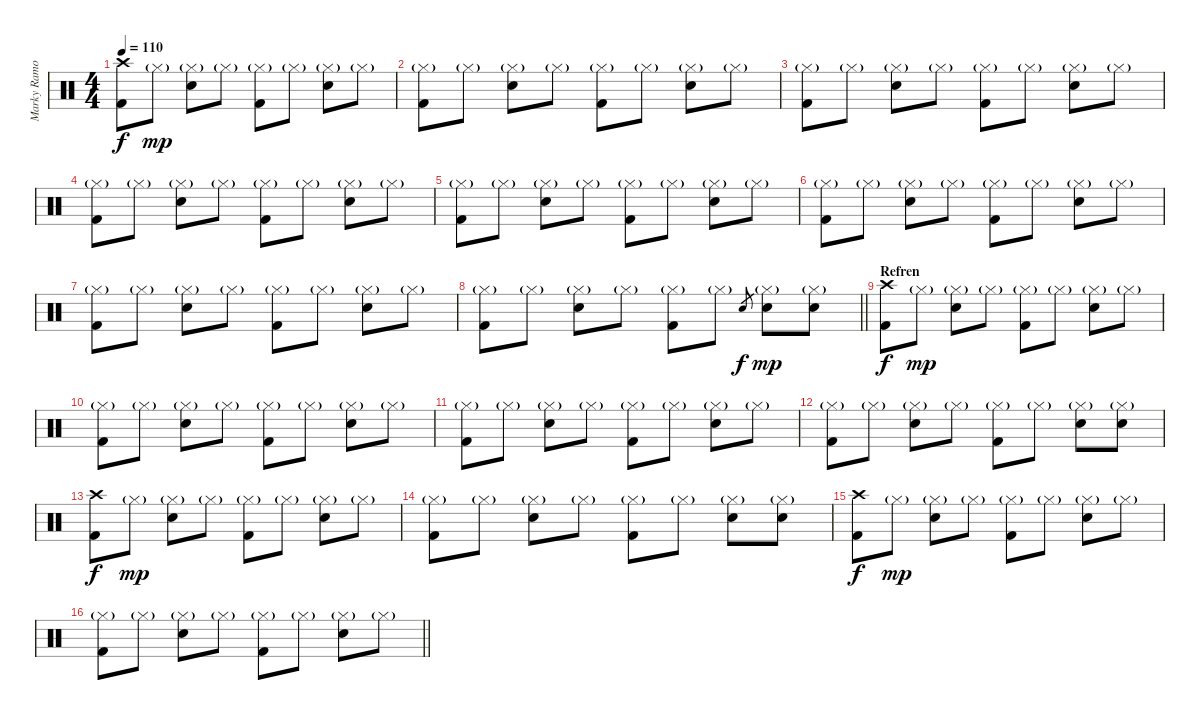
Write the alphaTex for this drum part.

\track ("Marky Ramone-Drums" "Marky Ramo") {instrument percussion}
\staff
\articulation defaults
\ts (4 4)
\tempo 110
\clef neutral
\ks c
("Crash high (hit)" "Kick (hit) 2").8{dy f} "Hi-Hat (closed)"{g}.8{dy mp} ("Hi-Hat (closed)"{g} "Snare (hit) 2").8 "Hi-Hat (closed)"{g}.8 ("Hi-Hat (closed)"{g} "Kick (hit) 2").8 "Hi-Hat (closed)"{g}.8 ("Hi-Hat (closed)"{g} "Snare (hit) 2").8 "Hi-Hat (closed)"{g}.8 |
("Hi-Hat (closed)"{g} "Kick (hit) 2").8 "Hi-Hat (closed)"{g}.8 ("Hi-Hat (closed)"{g} "Snare (hit) 2").8 "Hi-Hat (closed)"{g}.8 ("Hi-Hat (closed)"{g} "Kick (hit) 2").8 "Hi-Hat (closed)"{g}.8 ("Hi-Hat (closed)"{g} "Snare (hit) 2").8 "Hi-Hat (closed)"{g}.8 |
("Hi-Hat (closed)"{g} "Kick (hit) 2").8 "Hi-Hat (closed)"{g}.8 ("Hi-Hat (closed)"{g} "Snare (hit) 2").8 "Hi-Hat (closed)"{g}.8 ("Hi-Hat (closed)"{g} "Kick (hit) 2").8 "Hi-Hat (closed)"{g}.8 ("Hi-Hat (closed)"{g} "Snare (hit) 2").8 "Hi-Hat (closed)"{g}.8 |
("Hi-Hat (closed)"{g} "Kick (hit) 2").8 "Hi-Hat (closed)"{g}.8 ("Hi-Hat (closed)"{g} "Snare (hit) 2").8 "Hi-Hat (closed)"{g}.8 ("Hi-Hat (closed)"{g} "Kick (hit) 2").8 "Hi-Hat (closed)"{g}.8 ("Hi-Hat (closed)"{g} "Snare (hit) 2").8 "Hi-Hat (closed)"{g}.8 |
("Hi-Hat (closed)"{g} "Kick (hit) 2").8 "Hi-Hat (closed)"{g}.8 ("Hi-Hat (closed)"{g} "Snare (hit) 2").8 "Hi-Hat (closed)"{g}.8 ("Hi-Hat (closed)"{g} "Kick (hit) 2").8 "Hi-Hat (closed)"{g}.8 ("Hi-Hat (closed)"{g} "Snare (hit) 2").8 "Hi-Hat (closed)"{g}.8 |
("Hi-Hat (closed)"{g} "Kick (hit) 2").8 "Hi-Hat (closed)"{g}.8 ("Hi-Hat (closed)"{g} "Snare (hit) 2").8 "Hi-Hat (closed)"{g}.8 ("Hi-Hat (closed)"{g} "Kick (hit) 2").8 "Hi-Hat (closed)"{g}.8 ("Hi-Hat (closed)"{g} "Snare (hit) 2").8 "Hi-Hat (closed)"{g}.8 |
("Hi-Hat (closed)"{g} "Kick (hit) 2").8 "Hi-Hat (closed)"{g}.8 ("Hi-Hat (closed)"{g} "Snare (hit) 2").8 "Hi-Hat (closed)"{g}.8 ("Hi-Hat (closed)"{g} "Kick (hit) 2").8 "Hi-Hat (closed)"{g}.8 ("Hi-Hat (closed)"{g} "Snare (hit) 2").8 "Hi-Hat (closed)"{g}.8 |
\barLineRight lightlight
("Hi-Hat (closed)"{g} "Kick (hit) 2").8 "Hi-Hat (closed)"{g}.8 ("Hi-Hat (closed)"{g} "Snare (hit) 2").8 "Hi-Hat (closed)"{g}.8 ("Hi-Hat (closed)"{g} "Kick (hit) 2").8 "Hi-Hat (closed)"{g}.8 "Snare (hit) 2".8{gr dy f} ("Hi-Hat (closed)"{g} "Snare (hit) 2").8{dy mp} ("Hi-Hat (closed)"{g} "Snare (hit) 2").8 |
\section ("" "Refren")
("Crash high (hit)" "Kick (hit) 2").8{dy f} "Hi-Hat (closed)"{g}.8{dy mp} ("Hi-Hat (closed)"{g} "Snare (hit) 2").8 "Hi-Hat (closed)"{g}.8 ("Hi-Hat (closed)"{g} "Kick (hit) 2").8 "Hi-Hat (closed)"{g}.8 ("Hi-Hat (closed)"{g} "Snare (hit) 2").8 "Hi-Hat (closed)"{g}.8 |
("Hi-Hat (closed)"{g} "Kick (hit) 2").8 "Hi-Hat (closed)"{g}.8 ("Hi-Hat (closed)"{g} "Snare (hit) 2").8 "Hi-Hat (closed)"{g}.8 ("Hi-Hat (closed)"{g} "Kick (hit) 2").8 "Hi-Hat (closed)"{g}.8 ("Hi-Hat (closed)"{g} "Snare (hit) 2").8 "Hi-Hat (closed)"{g}.8 |
("Hi-Hat (closed)"{g} "Kick (hit) 2").8 "Hi-Hat (closed)"{g}.8 ("Hi-Hat (closed)"{g} "Snare (hit) 2").8 "Hi-Hat (closed)"{g}.8 ("Hi-Hat (closed)"{g} "Kick (hit) 2").8 "Hi-Hat (closed)"{g}.8 ("Hi-Hat (closed)"{g} "Snare (hit) 2").8 "Hi-Hat (closed)"{g}.8 |
("Hi-Hat (closed)"{g} "Kick (hit) 2").8 "Hi-Hat (closed)"{g}.8 ("Hi-Hat (closed)"{g} "Snare (hit) 2").8 "Hi-Hat (closed)"{g}.8 ("Hi-Hat (closed)"{g} "Kick (hit) 2").8 "Hi-Hat (closed)"{g}.8 ("Hi-Hat (closed)"{g} "Snare (hit) 2").8 ("Hi-Hat (closed)"{g} "Snare (hit) 2").8 |
("Crash high (hit)" "Kick (hit) 2").8{dy f} "Hi-Hat (closed)"{g}.8{dy mp} ("Hi-Hat (closed)"{g} "Snare (hit) 2").8 "Hi-Hat (closed)"{g}.8 ("Hi-Hat (closed)"{g} "Kick (hit) 2").8 "Hi-Hat (closed)"{g}.8 ("Hi-Hat (closed)"{g} "Snare (hit) 2").8 "Hi-Hat (closed)"{g}.8 |
("Hi-Hat (closed)"{g} "Kick (hit) 2").8 "Hi-Hat (closed)"{g}.8 ("Hi-Hat (closed)"{g} "Snare (hit) 2").8 "Hi-Hat (closed)"{g}.8 ("Hi-Hat (closed)"{g} "Kick (hit) 2").8 "Hi-Hat (closed)"{g}.8 ("Hi-Hat (closed)"{g} "Snare (hit) 2").8 ("Hi-Hat (closed)"{g} "Snare (hit) 2").8 |
("Crash high (hit)" "Kick (hit) 2").8{dy f} "Hi-Hat (closed)"{g}.8{dy mp} ("Hi-Hat (closed)"{g} "Snare (hit) 2").8 "Hi-Hat (closed)"{g}.8 ("Hi-Hat (closed)"{g} "Kick (hit) 2").8 "Hi-Hat (closed)"{g}.8 ("Hi-Hat (closed)"{g} "Snare (hit) 2").8 "Hi-Hat (closed)"{g}.8 |
\barLineRight lightlight
("Hi-Hat (closed)"{g} "Kick (hit) 2").8 "Hi-Hat (closed)"{g}.8 ("Hi-Hat (closed)"{g} "Snare (hit) 2").8 "Hi-Hat (closed)"{g}.8 ("Hi-Hat (closed)"{g} "Kick (hit) 2").8 "Hi-Hat (closed)"{g}.8 ("Hi-Hat (closed)"{g} "Snare (hit) 2").8 "Hi-Hat (closed)"{g}.8
